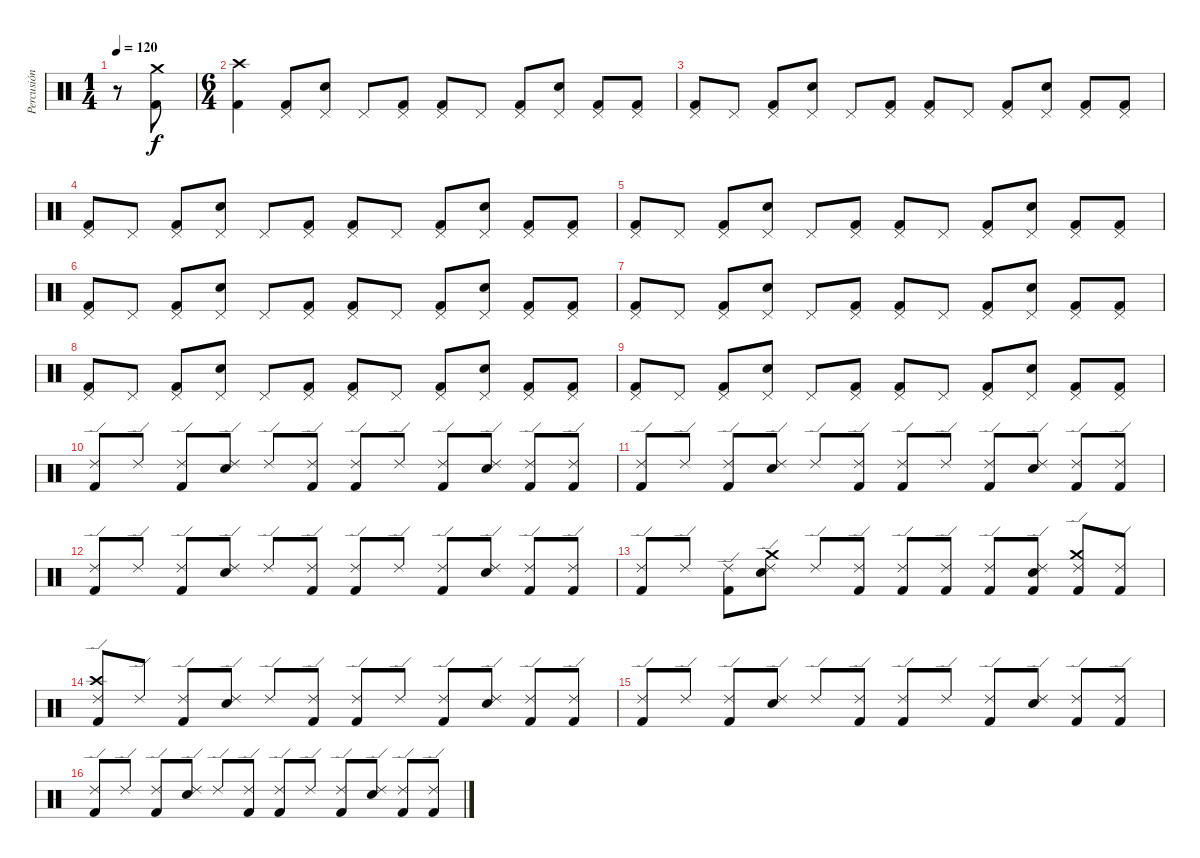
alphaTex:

\track ("Percusión" "Percusión") {instrument percussion}
\staff {score}
\articulation defaults
\ts (1 4)
\tempo 120
\clef neutral
\ks c
r.8{dy f} ("Kick (hit) 2" "Crash medium (hit)").8 |
\ts (6 4)
("Kick (hit) 2" "Crash high (hit)").4 ("Kick (hit) 2" "Pedal Hi-Hat (hit)").8 ("Snare (hit) 2" "Pedal Hi-Hat (hit)").8 "Pedal Hi-Hat (hit)".8 ("Kick (hit) 2" "Pedal Hi-Hat (hit)").8 ("Kick (hit) 2" "Pedal Hi-Hat (hit)").8 "Pedal Hi-Hat (hit)".8 ("Kick (hit) 2" "Pedal Hi-Hat (hit)").8 ("Snare (hit) 2" "Pedal Hi-Hat (hit)").8 ("Kick (hit) 2" "Pedal Hi-Hat (hit)").8 ("Kick (hit) 2" "Pedal Hi-Hat (hit)").8 |
("Kick (hit) 2" "Pedal Hi-Hat (hit)").8 "Pedal Hi-Hat (hit)".8 ("Kick (hit) 2" "Pedal Hi-Hat (hit)").8 ("Snare (hit) 2" "Pedal Hi-Hat (hit)").8 "Pedal Hi-Hat (hit)".8 ("Kick (hit) 2" "Pedal Hi-Hat (hit)").8 ("Kick (hit) 2" "Pedal Hi-Hat (hit)").8 "Pedal Hi-Hat (hit)".8 ("Kick (hit) 2" "Pedal Hi-Hat (hit)").8 ("Snare (hit) 2" "Pedal Hi-Hat (hit)").8 ("Kick (hit) 2" "Pedal Hi-Hat (hit)").8 ("Kick (hit) 2" "Pedal Hi-Hat (hit)").8 |
("Kick (hit) 2" "Pedal Hi-Hat (hit)").8 "Pedal Hi-Hat (hit)".8 ("Kick (hit) 2" "Pedal Hi-Hat (hit)").8 ("Snare (hit) 2" "Pedal Hi-Hat (hit)").8 "Pedal Hi-Hat (hit)".8 ("Kick (hit) 2" "Pedal Hi-Hat (hit)").8 ("Kick (hit) 2" "Pedal Hi-Hat (hit)").8 "Pedal Hi-Hat (hit)".8 ("Kick (hit) 2" "Pedal Hi-Hat (hit)").8 ("Snare (hit) 2" "Pedal Hi-Hat (hit)").8 ("Kick (hit) 2" "Pedal Hi-Hat (hit)").8 ("Kick (hit) 2" "Pedal Hi-Hat (hit)").8 |
("Kick (hit) 2" "Pedal Hi-Hat (hit)").8 "Pedal Hi-Hat (hit)".8 ("Kick (hit) 2" "Pedal Hi-Hat (hit)").8 ("Snare (hit) 2" "Pedal Hi-Hat (hit)").8 "Pedal Hi-Hat (hit)".8 ("Kick (hit) 2" "Pedal Hi-Hat (hit)").8 ("Kick (hit) 2" "Pedal Hi-Hat (hit)").8 "Pedal Hi-Hat (hit)".8 ("Kick (hit) 2" "Pedal Hi-Hat (hit)").8 ("Snare (hit) 2" "Pedal Hi-Hat (hit)").8 ("Kick (hit) 2" "Pedal Hi-Hat (hit)").8 ("Kick (hit) 2" "Pedal Hi-Hat (hit)").8 |
("Kick (hit) 2" "Pedal Hi-Hat (hit)").8 "Pedal Hi-Hat (hit)".8 ("Kick (hit) 2" "Pedal Hi-Hat (hit)").8 ("Snare (hit) 2" "Pedal Hi-Hat (hit)").8 "Pedal Hi-Hat (hit)".8 ("Kick (hit) 2" "Pedal Hi-Hat (hit)").8 ("Kick (hit) 2" "Pedal Hi-Hat (hit)").8 "Pedal Hi-Hat (hit)".8 ("Kick (hit) 2" "Pedal Hi-Hat (hit)").8 ("Snare (hit) 2" "Pedal Hi-Hat (hit)").8 ("Kick (hit) 2" "Pedal Hi-Hat (hit)").8 ("Kick (hit) 2" "Pedal Hi-Hat (hit)").8 |
("Kick (hit) 2" "Pedal Hi-Hat (hit)").8 "Pedal Hi-Hat (hit)".8 ("Kick (hit) 2" "Pedal Hi-Hat (hit)").8 ("Snare (hit) 2" "Pedal Hi-Hat (hit)").8 "Pedal Hi-Hat (hit)".8 ("Kick (hit) 2" "Pedal Hi-Hat (hit)").8 ("Kick (hit) 2" "Pedal Hi-Hat (hit)").8 "Pedal Hi-Hat (hit)".8 ("Kick (hit) 2" "Pedal Hi-Hat (hit)").8 ("Snare (hit) 2" "Pedal Hi-Hat (hit)").8 ("Kick (hit) 2" "Pedal Hi-Hat (hit)").8 ("Kick (hit) 2" "Pedal Hi-Hat (hit)").8 |
("Kick (hit) 2" "Pedal Hi-Hat (hit)").8 "Pedal Hi-Hat (hit)".8 ("Kick (hit) 2" "Pedal Hi-Hat (hit)").8 ("Snare (hit) 2" "Pedal Hi-Hat (hit)").8 "Pedal Hi-Hat (hit)".8 ("Kick (hit) 2" "Pedal Hi-Hat (hit)").8 ("Kick (hit) 2" "Pedal Hi-Hat (hit)").8 "Pedal Hi-Hat (hit)".8 ("Kick (hit) 2" "Pedal Hi-Hat (hit)").8 ("Snare (hit) 2" "Pedal Hi-Hat (hit)").8 ("Kick (hit) 2" "Pedal Hi-Hat (hit)").8 ("Kick (hit) 2" "Pedal Hi-Hat (hit)").8 |
("Kick (hit) 2" "Pedal Hi-Hat (hit)").8 "Pedal Hi-Hat (hit)".8 ("Kick (hit) 2" "Pedal Hi-Hat (hit)").8 ("Snare (hit) 2" "Pedal Hi-Hat (hit)").8 "Pedal Hi-Hat (hit)".8 ("Kick (hit) 2" "Pedal Hi-Hat (hit)").8 ("Kick (hit) 2" "Pedal Hi-Hat (hit)").8 "Pedal Hi-Hat (hit)".8 ("Kick (hit) 2" "Pedal Hi-Hat (hit)").8 ("Snare (hit) 2" "Pedal Hi-Hat (hit)").8 ("Kick (hit) 2" "Pedal Hi-Hat (hit)").8 ("Kick (hit) 2" "Pedal Hi-Hat (hit)").8 |
("Kick (hit) 2" "Ride (edge) 2").8 "Ride (edge) 2".8 ("Kick (hit) 2" "Ride (edge) 2").8 ("Snare (hit) 2" "Ride (edge) 2").8 "Ride (edge) 2".8 ("Kick (hit) 2" "Ride (edge) 2").8 ("Kick (hit) 2" "Ride (edge) 2").8 "Ride (edge) 2".8 ("Kick (hit) 2" "Ride (edge) 2").8 ("Snare (hit) 2" "Ride (edge) 2").8 ("Kick (hit) 2" "Ride (edge) 2").8 ("Kick (hit) 2" "Ride (edge) 2").8 |
("Kick (hit) 2" "Ride (edge) 2").8 "Ride (edge) 2".8 ("Kick (hit) 2" "Ride (edge) 2").8 ("Snare (hit) 2" "Ride (edge) 2").8 "Ride (edge) 2".8 ("Kick (hit) 2" "Ride (edge) 2").8 ("Kick (hit) 2" "Ride (edge) 2").8 "Ride (edge) 2".8 ("Kick (hit) 2" "Ride (edge) 2").8 ("Snare (hit) 2" "Ride (edge) 2").8 ("Kick (hit) 2" "Ride (edge) 2").8 ("Kick (hit) 2" "Ride (edge) 2").8 |
("Kick (hit) 2" "Ride (edge) 2").8 "Ride (edge) 2".8 ("Kick (hit) 2" "Ride (edge) 2").8 ("Snare (hit) 2" "Ride (edge) 2").8 "Ride (edge) 2".8 ("Kick (hit) 2" "Ride (edge) 2").8 ("Kick (hit) 2" "Ride (edge) 2").8 "Ride (edge) 2".8 ("Kick (hit) 2" "Ride (edge) 2").8 ("Snare (hit) 2" "Ride (edge) 2").8 ("Kick (hit) 2" "Ride (edge) 2").8 ("Kick (hit) 2" "Ride (edge) 2").8 |
("Kick (hit) 2" "Ride (edge) 2").8 "Ride (edge) 2".8 ("Kick (hit) 2" "Ride (edge) 2").8 ("Snare (hit) 2" "Crash medium (hit)" "Ride (edge) 2").8 "Ride (edge) 2".8 ("Kick (hit) 2" "Ride (edge) 2").8 ("Kick (hit) 2" "Ride (edge) 2").8 ("Kick (hit) 2" "Ride (edge) 2").8 ("Kick (hit) 2" "Ride (edge) 2").8 ("Kick (hit) 2" "Snare (hit) 2" "Ride (edge) 2").8 ("Kick (hit) 2" "Crash medium (hit)" "Ride (edge) 2").8 ("Kick (hit) 2" "Ride (edge) 2").8 |
("Kick (hit) 2" "Crash high (hit)" "Ride (edge) 2").8 "Ride (edge) 2".8 ("Kick (hit) 2" "Ride (edge) 2").8 ("Snare (hit) 2" "Ride (edge) 2").8 "Ride (edge) 2".8 ("Kick (hit) 2" "Ride (edge) 2").8 ("Kick (hit) 2" "Ride (edge) 2").8 "Ride (edge) 2".8 ("Kick (hit) 2" "Ride (edge) 2").8 ("Snare (hit) 2" "Ride (edge) 2").8 ("Kick (hit) 2" "Ride (edge) 2").8 ("Kick (hit) 2" "Ride (edge) 2").8 |
("Kick (hit) 2" "Ride (edge) 2").8 "Ride (edge) 2".8 ("Kick (hit) 2" "Ride (edge) 2").8 ("Snare (hit) 2" "Ride (edge) 2").8 "Ride (edge) 2".8 ("Kick (hit) 2" "Ride (edge) 2").8 ("Kick (hit) 2" "Ride (edge) 2").8 "Ride (edge) 2".8 ("Kick (hit) 2" "Ride (edge) 2").8 ("Snare (hit) 2" "Ride (edge) 2").8 ("Kick (hit) 2" "Ride (edge) 2").8 ("Kick (hit) 2" "Ride (edge) 2").8 |
("Kick (hit) 2" "Ride (edge) 2").8 "Ride (edge) 2".8 ("Kick (hit) 2" "Ride (edge) 2").8 ("Snare (hit) 2" "Ride (edge) 2").8 "Ride (edge) 2".8 ("Kick (hit) 2" "Ride (edge) 2").8 ("Kick (hit) 2" "Ride (edge) 2").8 "Ride (edge) 2".8 ("Kick (hit) 2" "Ride (edge) 2").8 ("Snare (hit) 2" "Ride (edge) 2").8 ("Kick (hit) 2" "Ride (edge) 2").8 ("Kick (hit) 2" "Ride (edge) 2").8
